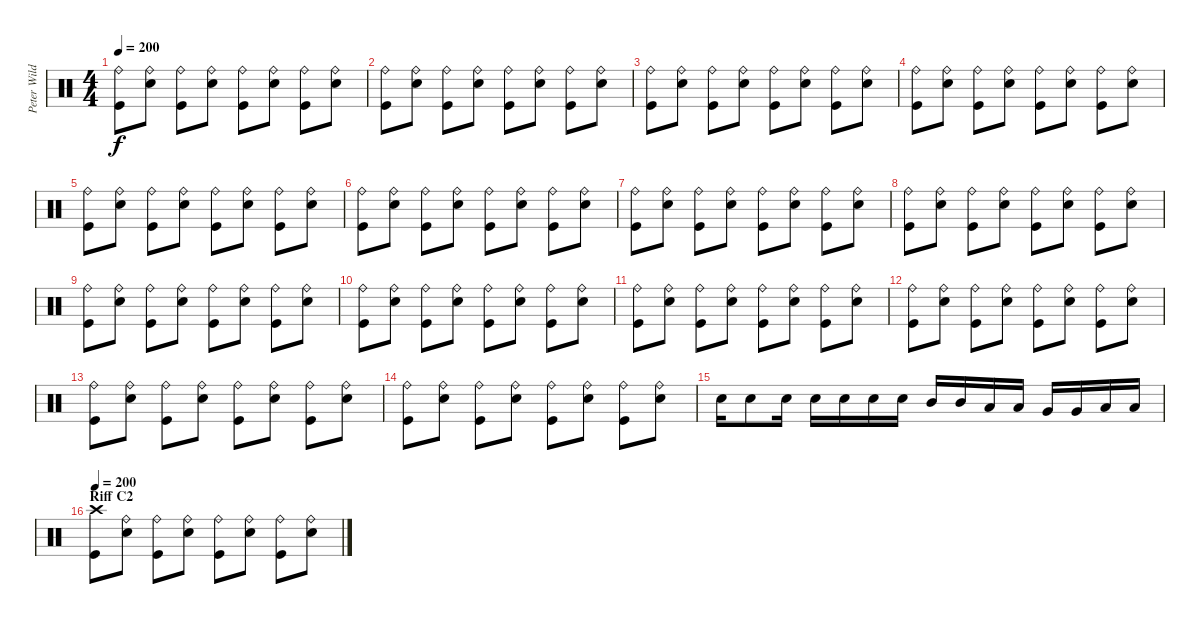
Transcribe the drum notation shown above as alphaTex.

\track ("Peter Wildoer " "Peter Wild") {instrument percussion}
\staff {score}
\articulation defaults
\ts (4 4)
\tempo 200
\clef neutral
\ks c
("Ride (bell)" "Kick (hit)").8{dy f} ("Ride (bell)" "Electric Snare (hit)").8 ("Ride (bell)" "Kick (hit)").8 ("Ride (bell)" "Electric Snare (hit)").8 ("Ride (bell)" "Kick (hit)").8 ("Ride (bell)" "Electric Snare (hit)").8 ("Ride (bell)" "Kick (hit)").8 ("Ride (bell)" "Electric Snare (hit)").8 |
("Ride (bell)" "Kick (hit)").8 ("Ride (bell)" "Electric Snare (hit)").8 ("Ride (bell)" "Kick (hit)").8 ("Ride (bell)" "Electric Snare (hit)").8 ("Ride (bell)" "Kick (hit)").8 ("Ride (bell)" "Electric Snare (hit)").8 ("Ride (bell)" "Kick (hit)").8 ("Ride (bell)" "Electric Snare (hit)").8 |
("Ride (bell)" "Kick (hit)").8 ("Ride (bell)" "Electric Snare (hit)").8 ("Ride (bell)" "Kick (hit)").8 ("Ride (bell)" "Electric Snare (hit)").8 ("Ride (bell)" "Kick (hit)").8 ("Ride (bell)" "Electric Snare (hit)").8 ("Ride (bell)" "Kick (hit)").8 ("Ride (bell)" "Electric Snare (hit)").8 |
("Ride (bell)" "Kick (hit)").8 ("Ride (bell)" "Electric Snare (hit)").8 ("Ride (bell)" "Kick (hit)").8 ("Ride (bell)" "Electric Snare (hit)").8 ("Ride (bell)" "Kick (hit)").8 ("Ride (bell)" "Electric Snare (hit)").8 ("Ride (bell)" "Kick (hit)").8 ("Ride (bell)" "Electric Snare (hit)").8 |
("Ride (bell)" "Kick (hit)").8 ("Ride (bell)" "Electric Snare (hit)").8 ("Ride (bell)" "Kick (hit)").8 ("Ride (bell)" "Electric Snare (hit)").8 ("Ride (bell)" "Kick (hit)").8 ("Ride (bell)" "Electric Snare (hit)").8 ("Ride (bell)" "Kick (hit)").8 ("Ride (bell)" "Electric Snare (hit)").8 |
("Ride (bell)" "Kick (hit)").8 ("Ride (bell)" "Electric Snare (hit)").8 ("Ride (bell)" "Kick (hit)").8 ("Ride (bell)" "Electric Snare (hit)").8 ("Ride (bell)" "Kick (hit)").8 ("Ride (bell)" "Electric Snare (hit)").8 ("Ride (bell)" "Kick (hit)").8 ("Ride (bell)" "Electric Snare (hit)").8 |
("Ride (bell)" "Kick (hit)").8 ("Ride (bell)" "Electric Snare (hit)").8 ("Ride (bell)" "Kick (hit)").8 ("Ride (bell)" "Electric Snare (hit)").8 ("Ride (bell)" "Kick (hit)").8 ("Ride (bell)" "Electric Snare (hit)").8 ("Ride (bell)" "Kick (hit)").8 ("Ride (bell)" "Electric Snare (hit)").8 |
("Ride (bell)" "Kick (hit)").8 ("Ride (bell)" "Electric Snare (hit)").8 ("Ride (bell)" "Kick (hit)").8 ("Ride (bell)" "Electric Snare (hit)").8 ("Ride (bell)" "Kick (hit)").8 ("Ride (bell)" "Electric Snare (hit)").8 ("Ride (bell)" "Kick (hit)").8 ("Ride (bell)" "Electric Snare (hit)").8 |
("Ride (bell)" "Kick (hit)").8 ("Ride (bell)" "Electric Snare (hit)").8 ("Ride (bell)" "Kick (hit)").8 ("Ride (bell)" "Electric Snare (hit)").8 ("Ride (bell)" "Kick (hit)").8 ("Ride (bell)" "Electric Snare (hit)").8 ("Ride (bell)" "Kick (hit)").8 ("Ride (bell)" "Electric Snare (hit)").8 |
("Ride (bell)" "Kick (hit)").8 ("Ride (bell)" "Electric Snare (hit)").8 ("Ride (bell)" "Kick (hit)").8 ("Ride (bell)" "Electric Snare (hit)").8 ("Ride (bell)" "Kick (hit)").8 ("Ride (bell)" "Electric Snare (hit)").8 ("Ride (bell)" "Kick (hit)").8 ("Ride (bell)" "Electric Snare (hit)").8 |
("Ride (bell)" "Kick (hit)").8 ("Ride (bell)" "Electric Snare (hit)").8 ("Ride (bell)" "Kick (hit)").8 ("Ride (bell)" "Electric Snare (hit)").8 ("Ride (bell)" "Kick (hit)").8 ("Ride (bell)" "Electric Snare (hit)").8 ("Ride (bell)" "Kick (hit)").8 ("Ride (bell)" "Electric Snare (hit)").8 |
("Ride (bell)" "Kick (hit)").8 ("Ride (bell)" "Electric Snare (hit)").8 ("Ride (bell)" "Kick (hit)").8 ("Ride (bell)" "Electric Snare (hit)").8 ("Ride (bell)" "Kick (hit)").8 ("Ride (bell)" "Electric Snare (hit)").8 ("Ride (bell)" "Kick (hit)").8 ("Ride (bell)" "Electric Snare (hit)").8 |
("Ride (bell)" "Kick (hit)").8 ("Ride (bell)" "Electric Snare (hit)").8 ("Ride (bell)" "Kick (hit)").8 ("Ride (bell)" "Electric Snare (hit)").8 ("Ride (bell)" "Kick (hit)").8 ("Ride (bell)" "Electric Snare (hit)").8 ("Ride (bell)" "Kick (hit)").8 ("Ride (bell)" "Electric Snare (hit)").8 |
("Ride (bell)" "Kick (hit)").8 ("Ride (bell)" "Electric Snare (hit)").8 ("Ride (bell)" "Kick (hit)").8 ("Ride (bell)" "Electric Snare (hit)").8 ("Ride (bell)" "Kick (hit)").8 ("Ride (bell)" "Electric Snare (hit)").8 ("Ride (bell)" "Kick (hit)").8 ("Ride (bell)" "Electric Snare (hit)").8 |
"Electric Snare (hit)".16 "Electric Snare (hit)".8 "Electric Snare (hit)".16 "Electric Snare (hit)".16 "Electric Snare (hit)".16 "Electric Snare (hit)".16 "Electric Snare (hit)".16 "Mid Tom (hit)".16 "Mid Tom (hit)".16 "Low Tom (hit)".16 "Low Tom (hit)".16 "Very Low Tom (hit)".16 "Very Low Tom (hit)".16 "Low Floor Tom (hit)".16 "Low Floor Tom (hit)".16 |
\section ("" "Riff C2")
\tempo 200
("Crash high (hit)" "Kick (hit)").8 ("Ride (bell)" "Electric Snare (hit)").8 ("Ride (bell)" "Kick (hit)").8 ("Ride (bell)" "Electric Snare (hit)").8 ("Ride (bell)" "Kick (hit)").8 ("Ride (bell)" "Electric Snare (hit)").8 ("Ride (bell)" "Kick (hit)").8 ("Ride (bell)" "Electric Snare (hit)").8
